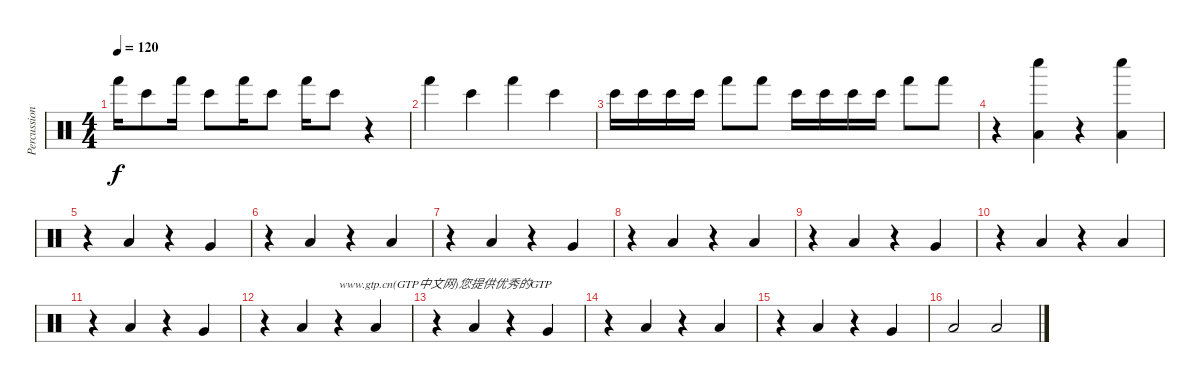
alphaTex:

\track ("Percussion" "Percussion") {instrument percussion}
\staff {score}
\articulation defaults
\ts (4 4)
\tempo 120
\clef neutral
\ks c "Hand (hit)".16{dy f} "Bongo High (hit)".8 "Hand (hit)".16 "Bongo High (hit)".8 "Hand (hit)".16 "Bongo High (hit)".8 "Hand (hit)".16 "Bongo High (hit)".8
r.4 |
"Hand (hit)".4 "Bongo High (hit)".4 "Hand (hit)".4 "Bongo High (hit)".4 |
"Bongo High (hit)".16 "Bongo High (hit)".16 "Bongo High (hit)".16 "Bongo High (hit)".16 "Hand (hit)".8 "Hand (hit)".8 "Bongo High (hit)".16 "Bongo High (hit)".16 "Bongo High (hit)".16 "Bongo High (hit)".16 "Hand (hit)".8 "Hand (hit)".8 |
r.4 ("Low Floor Tom (hit)" "Whistle low (hit)").4 r.4 ("Low Floor Tom (hit)" "Whistle low (hit)").4 |
r.4 "Low Floor Tom (hit)".4 r.4 "Very Low Tom (hit)".4 |
r.4 "Low Floor Tom (hit)".4 r.4 "Low Floor Tom (hit)".4 |
r.4 "Low Floor Tom (hit)".4 r.4 "Very Low Tom (hit)".4 |
r.4 "Low Floor Tom (hit)".4 r.4 "Low Floor Tom (hit)".4 |
r.4 "Low Floor Tom (hit)".4 r.4 "Very Low Tom (hit)".4 |
r.4 "Low Floor Tom (hit)".4 r.4 "Low Floor Tom (hit)".4 |
r.4 "Low Floor Tom (hit)".4 r.4 "Very Low Tom (hit)".4 |
r.4 "Low Floor Tom (hit)".4 r.4{txt "www.gtp.cn(GTP中文网)您提供优秀的GTP"} "Low Floor Tom (hit)".4 |
r.4 "Low Floor Tom (hit)".4 r.4 "Very Low Tom (hit)".4 |
r.4 "Low Floor Tom (hit)".4 r.4 "Low Floor Tom (hit)".4 |
r.4 "Low Floor Tom (hit)".4 r.4 "Very Low Tom (hit)".4 |
"Low Floor Tom (hit)".2 "Low Floor Tom (hit)".2
